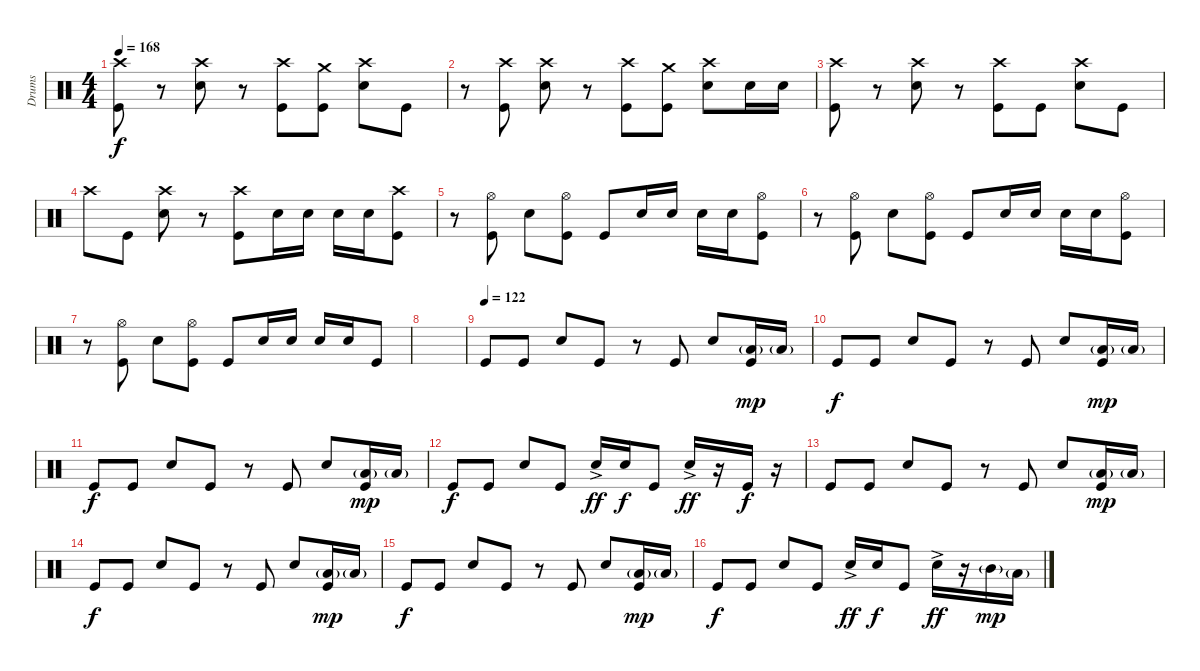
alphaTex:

\track ("Drums" "Drums") {instrument percussion}
\staff {score}
\articulation defaults
\ts (4 4)
\tempo 168
\clef neutral
\ks c
("Crash high (hit)" "Kick (hit)").8{dy f} r.8 ("Crash high (hit)" "Snare (hit) 2").8 r.8 ("Crash high (hit)" "Kick (hit)").8 ("Crash medium (hit)" "Kick (hit)").8 ("Crash high (hit)" "Snare (hit) 2").8 "Kick (hit)".8 |
r.8 ("Crash high (hit)" "Kick (hit)").8 ("Crash high (hit)" "Snare (hit) 2").8 r.8 ("Crash high (hit)" "Kick (hit)").8 ("Crash medium (hit)" "Kick (hit)").8 ("Crash high (hit)" "Snare (hit) 2").8 "Snare (hit) 2".16 "Snare (hit) 2".16 |
("Crash high (hit)" "Kick (hit)").8 r.8 ("Crash high (hit)" "Snare (hit) 2").8 r.8 ("Crash high (hit)" "Kick (hit)").8 "Kick (hit)".8 ("Crash high (hit)" "Snare (hit) 2").8 "Kick (hit)".8 |
"Crash high (hit)".8 "Kick (hit)".8 ("Crash high (hit)" "Snare (hit) 2").8 r.8 ("Crash high (hit)" "Kick (hit)").8 "Snare (hit) 2".16 "Snare (hit) 2".16 "Snare (hit) 2".16 "Snare (hit) 2".16 ("Crash high (hit)" "Kick (hit)").8 |
r.8 ("Hi-Hat (open)" "Kick (hit)").8 "Snare (hit) 2".8 ("Hi-Hat (open)" "Kick (hit)").8 "Kick (hit)".8 "Snare (hit) 2".16 "Snare (hit) 2".16 "Snare (hit) 2".16 "Snare (hit) 2".16 ("Hi-Hat (open)" "Kick (hit)").8 |
r.8 ("Hi-Hat (open)" "Kick (hit)").8 "Snare (hit) 2".8 ("Hi-Hat (open)" "Kick (hit)").8 "Kick (hit)".8 "Snare (hit) 2".16 "Snare (hit) 2".16 "Snare (hit) 2".16 "Snare (hit) 2".16 ("Hi-Hat (open)" "Kick (hit)").8 |
r.8 ("Hi-Hat (open)" "Kick (hit)").8 "Snare (hit) 2".8 ("Hi-Hat (open)" "Kick (hit)").8 "Kick (hit)".8 "Snare (hit) 2".16 "Snare (hit) 2".16 "Snare (hit) 2".16 "Snare (hit) 2".16 "Kick (hit)".8 |
|
\tempo (122)
"Kick (hit)".8 "Kick (hit)".8 "Snare (hit) 2".8 "Kick (hit)".8 r.8 "Kick (hit)".8 "Snare (hit) 2".8 ("Low Tom (hit)"{g} "Kick (hit)").16{dy mp} "Low Tom (hit)"{g}.16 |
"Kick (hit)".8{dy f} "Kick (hit)".8 "Snare (hit) 2".8 "Kick (hit)".8 r.8 "Kick (hit)".8 "Snare (hit) 2".8 ("Low Tom (hit)"{g} "Kick (hit)").16{dy mp} "Low Tom (hit)"{g}.16 |
"Kick (hit)".8{dy f} "Kick (hit)".8 "Snare (hit) 2".8 "Kick (hit)".8 r.8 "Kick (hit)".8 "Snare (hit) 2".8 ("Low Tom (hit)"{g} "Kick (hit)").16{dy mp} "Low Tom (hit)"{g}.16 |
"Kick (hit)".8{dy f} "Kick (hit)".8 "Snare (hit) 2".8 "Kick (hit)".8 "Snare (hit) 2"{ac}.16{dy ff} "Snare (hit) 2".16{dy f} "Kick (hit)".8 "Snare (hit) 2"{ac}.16{dy ff} r.16 "Kick (hit)".16{dy f} r.16 |
"Kick (hit)".8 "Kick (hit)".8 "Snare (hit) 2".8 "Kick (hit)".8 r.8 "Kick (hit)".8 "Snare (hit) 2".8 ("Low Tom (hit)"{g} "Kick (hit)").16{dy mp} "Low Tom (hit)"{g}.16 |
"Kick (hit)".8{dy f} "Kick (hit)".8 "Snare (hit) 2".8 "Kick (hit)".8 r.8 "Kick (hit)".8 "Snare (hit) 2".8 ("Low Tom (hit)"{g} "Kick (hit)").16{dy mp} "Low Tom (hit)"{g}.16 |
"Kick (hit)".8{dy f} "Kick (hit)".8 "Snare (hit) 2".8 "Kick (hit)".8 r.8 "Kick (hit)".8 "Snare (hit) 2".8 ("Low Tom (hit)"{g} "Kick (hit)").16{dy mp} "Low Tom (hit)"{g}.16 |
"Kick (hit)".8{dy f} "Kick (hit)".8 "Snare (hit) 2".8 "Kick (hit)".8 "Snare (hit) 2"{ac}.16{dy ff} "Snare (hit) 2".16{dy f} "Kick (hit)".8 "Snare (hit) 2"{ac}.16{dy ff} r.16 "Mid Tom (hit)"{g}.16{dy mp} "Low Tom (hit)"{g}.16
